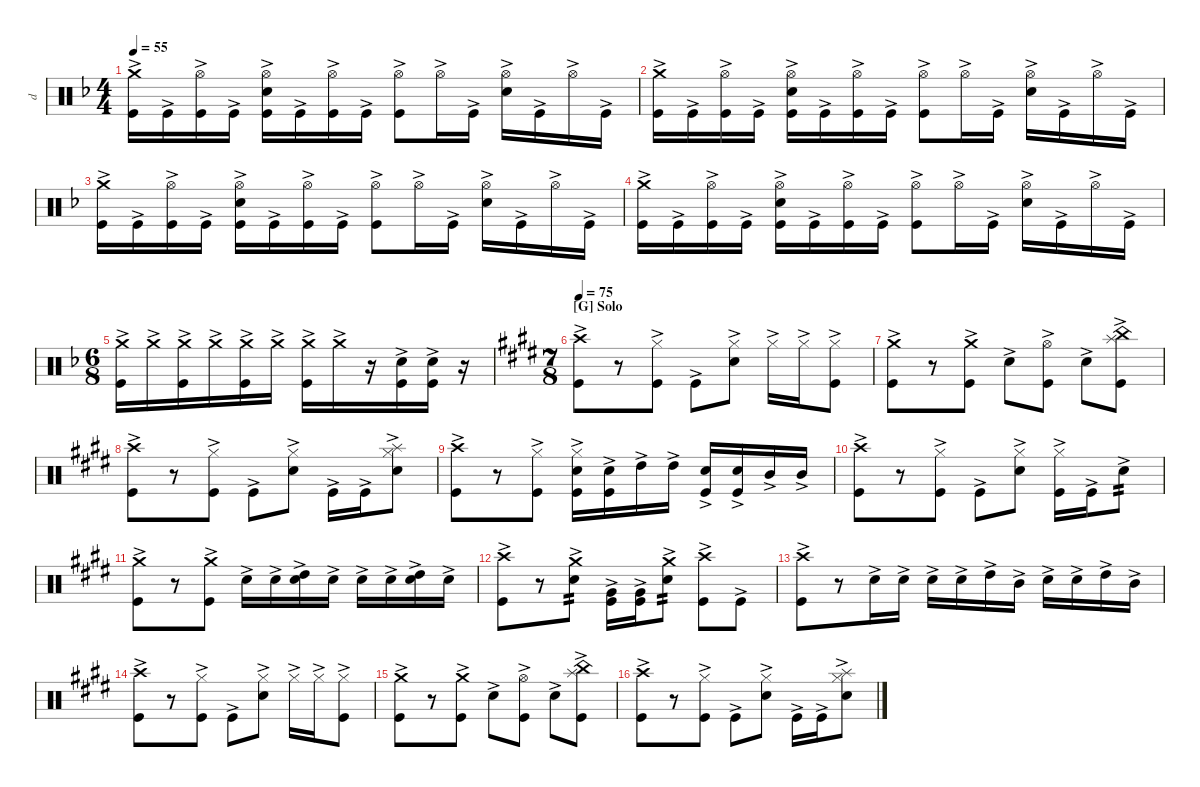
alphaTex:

\defaultSystemsLayout 4
\hideDynamics
\bracketExtendMode nobrackets
\otherSystemsTrackNameOrientation horizontal
\track ("Drumkit" "d") {instrument percussion}
\staff {score}
\articulation defaults
\ts (4 4)
\tempo 55
\clef neutral
\ks dminor
("Crash medium (hit)"{ac} "Kick (hit)"{ac}).16{dy ff} "Kick (hit)"{ac}.16{dy mf} ("Hi-Hat (open)"{ac} "Kick (hit)"{ac}).16 "Kick (hit)"{ac}.16 ("Hi-Hat (open)"{ac} "Snare (hit) 2"{ac} "Kick (hit)"{ac}).16 "Kick (hit)"{ac}.16 ("Hi-Hat (open)"{ac} "Kick (hit)"{ac}).16 "Kick (hit)"{ac}.16 ("Hi-Hat (open)"{ac} "Kick (hit)"{ac}).8 "Hi-Hat (open)"{ac}.16 "Kick (hit)"{ac}.16 ("Hi-Hat (open)"{ac} "Snare (hit) 2"{ac}).16 "Kick (hit)"{ac}.16 "Hi-Hat (open)"{ac}.16 "Kick (hit)"{ac}.16 |
("Crash medium (hit)"{ac} "Kick (hit)"{ac}).16{dy ff} "Kick (hit)"{ac}.16{dy mf} ("Hi-Hat (open)"{ac} "Kick (hit)"{ac}).16 "Kick (hit)"{ac}.16 ("Hi-Hat (open)"{ac} "Snare (hit) 2"{ac} "Kick (hit)"{ac}).16 "Kick (hit)"{ac}.16 ("Hi-Hat (open)"{ac} "Kick (hit)"{ac}).16 "Kick (hit)"{ac}.16 ("Hi-Hat (open)"{ac} "Kick (hit)"{ac}).8 "Hi-Hat (open)"{ac}.16 "Kick (hit)"{ac}.16 ("Hi-Hat (open)"{ac} "Snare (hit) 2"{ac}).16 "Kick (hit)"{ac}.16 "Hi-Hat (open)"{ac}.16 "Kick (hit)"{ac}.16 |
("Crash medium (hit)"{ac} "Kick (hit)"{ac}).16{dy ff} "Kick (hit)"{ac}.16{dy mf} ("Hi-Hat (open)"{ac} "Kick (hit)"{ac}).16 "Kick (hit)"{ac}.16 ("Hi-Hat (open)"{ac} "Snare (hit) 2"{ac} "Kick (hit)"{ac}).16 "Kick (hit)"{ac}.16 ("Hi-Hat (open)"{ac} "Kick (hit)"{ac}).16 "Kick (hit)"{ac}.16 ("Hi-Hat (open)"{ac} "Kick (hit)"{ac}).8 "Hi-Hat (open)"{ac}.16 "Kick (hit)"{ac}.16 ("Hi-Hat (open)"{ac} "Snare (hit) 2"{ac}).16 "Kick (hit)"{ac}.16 "Hi-Hat (open)"{ac}.16 "Kick (hit)"{ac}.16 |
("Crash medium (hit)"{ac} "Kick (hit)"{ac}).16{dy ff} "Kick (hit)"{ac}.16{dy mf} ("Hi-Hat (open)"{ac} "Kick (hit)"{ac}).16 "Kick (hit)"{ac}.16 ("Hi-Hat (open)"{ac} "Snare (hit) 2"{ac} "Kick (hit)"{ac}).16 "Kick (hit)"{ac}.16 ("Hi-Hat (open)"{ac} "Kick (hit)"{ac}).16 "Kick (hit)"{ac}.16 ("Hi-Hat (open)"{ac} "Kick (hit)"{ac}).8 "Hi-Hat (open)"{ac}.16 "Kick (hit)"{ac}.16 ("Hi-Hat (open)"{ac} "Snare (hit) 2"{ac}).16 "Kick (hit)"{ac}.16 "Hi-Hat (open)"{ac}.16 "Kick (hit)"{ac}.16 |
\ts (6 8)
\beaming (8 3 3)
("Crash medium (hit)"{ac} "Kick (hit)"{ac}).16 "Crash medium (hit)"{ac}.16{dy ppp} ("Crash medium (hit)"{ac} "Kick (hit)"{ac}).16{dy mf} "Crash medium (hit)"{ac}.16{dy ppp} ("Crash medium (hit)"{ac} "Kick (hit)"{ac}).16{dy mf} "Crash medium (hit)"{ac}.16{dy ppp} ("Crash medium (hit)"{ac} "Kick (hit)"{ac}).16{dy mf} "Crash medium (hit)"{ac}.16{dy ppp} r.16 ("Snare (hit) 2"{ac} "Kick (hit)"{ac}).16{dy ff} ("Snare (hit) 2"{ac} "Kick (hit)"{ac}).16 r.16 |
\ts (7 8)
\beaming (8 3 2 2)
\section ("G" "Solo")
\tempo 75
\ks c#minor
("Crash high (hit)"{ac} "Kick (hit)"{ac}).8{dy mf} r.8 ("Hi-Hat (closed)"{ac} "Kick (hit)"{ac}).8 "Kick (hit)"{ac}.8 ("Hi-Hat (closed)"{ac} "Snare (hit) 2"{ac}).8 "Hi-Hat (closed)"{ac}.16 "Hi-Hat (closed)"{ac}.16 ("Hi-Hat (closed)"{ac} "Kick (hit)"{ac}).8 |
("Crash medium (hit)"{ac} "Kick (hit)"{ac}).8 r.8 ("Crash medium (hit)"{ac} "Kick (hit)"{ac}).8 "Snare (hit) 2"{ac}.8 ("Hi-Hat (open)"{ac} "Kick (hit)"{ac}).8 "Snare (hit) 2"{ac}.8 ("China (hit)"{ac} "Splash (hit)"{ac} "Kick (hit)"{ac}).8 |
("Crash high (hit)"{ac} "Kick (hit)"{ac}).8 r.8 ("Hi-Hat (closed)"{ac} "Kick (hit)"{ac}).8 "Kick (hit)"{ac}.8 ("Hi-Hat (closed)"{ac} "Snare (hit) 2"{ac}).8 "Kick (hit)"{ac}.16 "Kick (hit)"{ac}.16 ("Splash (hit)"{ac} "Hi-Hat (closed)"{ac} "Snare (hit) 2"{ac}).8 |
("Crash high (hit)"{ac} "Kick (hit)"{ac}).8 r.8 ("Hi-Hat (closed)"{ac} "Kick (hit)"{ac}).8 ("Hi-Hat (closed)"{ac} "Snare (hit) 2"{ac} "Kick (hit)"{ac}).16 ("Snare (hit) 2"{ac} "Kick (hit)"{ac}).16 "High Tom (hit)"{ac}.16 "High Tom (hit)"{ac}.16 ("Snare (hit) 2"{ac} "Kick (hit)"{ac}).16 ("Snare (hit) 2"{ac} "Kick (hit)"{ac}).16 "Mid Tom (hit)"{ac}.16 "Mid Tom (hit)"{ac}.16 |
("Crash high (hit)"{ac} "Kick (hit)"{ac}).8 r.8 ("Hi-Hat (closed)"{ac} "Kick (hit)"{ac}).8 "Kick (hit)"{ac}.8 ("Hi-Hat (closed)"{ac} "Snare (hit) 2"{ac}).8 ("Hi-Hat (closed)"{ac} "Kick (hit)"{ac}).16 "Kick (hit)"{ac}.16 "Snare (hit) 2"{ac}.8{tp 2} |
("Crash medium (hit)"{ac} "Kick (hit)"{ac}).8 r.8 ("Crash medium (hit)"{ac} "Kick (hit)"{ac}).8 "Snare (hit) 2"{ac}.16 "Snare (hit) 2"{ac}.16 ("High Tom (hit)"{ac} "Snare (hit) 2"{ac}).16 "Snare (hit) 2"{ac}.16 "Snare (hit) 2"{ac}.16 "Snare (hit) 2"{ac}.16 ("High Tom (hit)"{ac} "Snare (hit) 2"{ac}).16 "Snare (hit) 2"{ac}.16 |
("Crash high (hit)"{ac} "Kick (hit)"{ac}).8 r.8 ("Crash medium (hit)"{ac} "Snare (hit) 2"{ac}).8{tp 2} ("Very Low Tom (hit)"{ac} "Kick (hit)"{ac}).16 ("Very Low Tom (hit)"{ac} "Kick (hit)"{ac}).16 ("Crash medium (hit)"{ac} "Snare (hit) 2"{ac}).8{tp 2} ("Crash high (hit)"{ac} "Kick (hit)"{ac}).8 "Kick (hit)"{ac}.8 |
("Crash high (hit)"{ac} "Kick (hit)"{ac}).8 r.8 "Snare (hit) 2"{ac}.16 "Snare (hit) 2"{ac}.16 "Snare (hit) 2"{ac}.16 "Snare (hit) 2"{ac}.16 "High Tom (hit)"{ac}.16 "Mid Tom (hit)"{ac}.16 "Snare (hit) 2"{ac}.16 "Snare (hit) 2"{ac}.16 "High Tom (hit)"{ac}.16 "Mid Tom (hit)"{ac}.16 |
("Crash high (hit)"{ac} "Kick (hit)"{ac}).8 r.8 ("Hi-Hat (closed)"{ac} "Kick (hit)"{ac}).8 "Kick (hit)"{ac}.8 ("Hi-Hat (closed)"{ac} "Snare (hit) 2"{ac}).8 "Hi-Hat (closed)"{ac}.16 "Hi-Hat (closed)"{ac}.16 ("Hi-Hat (closed)"{ac} "Kick (hit)"{ac}).8 |
("Crash medium (hit)"{ac} "Kick (hit)"{ac}).8 r.8 ("Crash medium (hit)"{ac} "Kick (hit)"{ac}).8 "Snare (hit) 2"{ac}.8 ("Hi-Hat (open)"{ac} "Kick (hit)"{ac}).8 "Snare (hit) 2"{ac}.8 ("China (hit)"{ac} "Splash (hit)"{ac} "Kick (hit)"{ac}).8 |
("Crash high (hit)"{ac} "Kick (hit)"{ac}).8 r.8 ("Hi-Hat (closed)"{ac} "Kick (hit)"{ac}).8 "Kick (hit)"{ac}.8 ("Hi-Hat (closed)"{ac} "Snare (hit) 2"{ac}).8 "Kick (hit)"{ac}.16 "Kick (hit)"{ac}.16 ("Splash (hit)"{ac} "Hi-Hat (closed)"{ac} "Snare (hit) 2"{ac}).8
